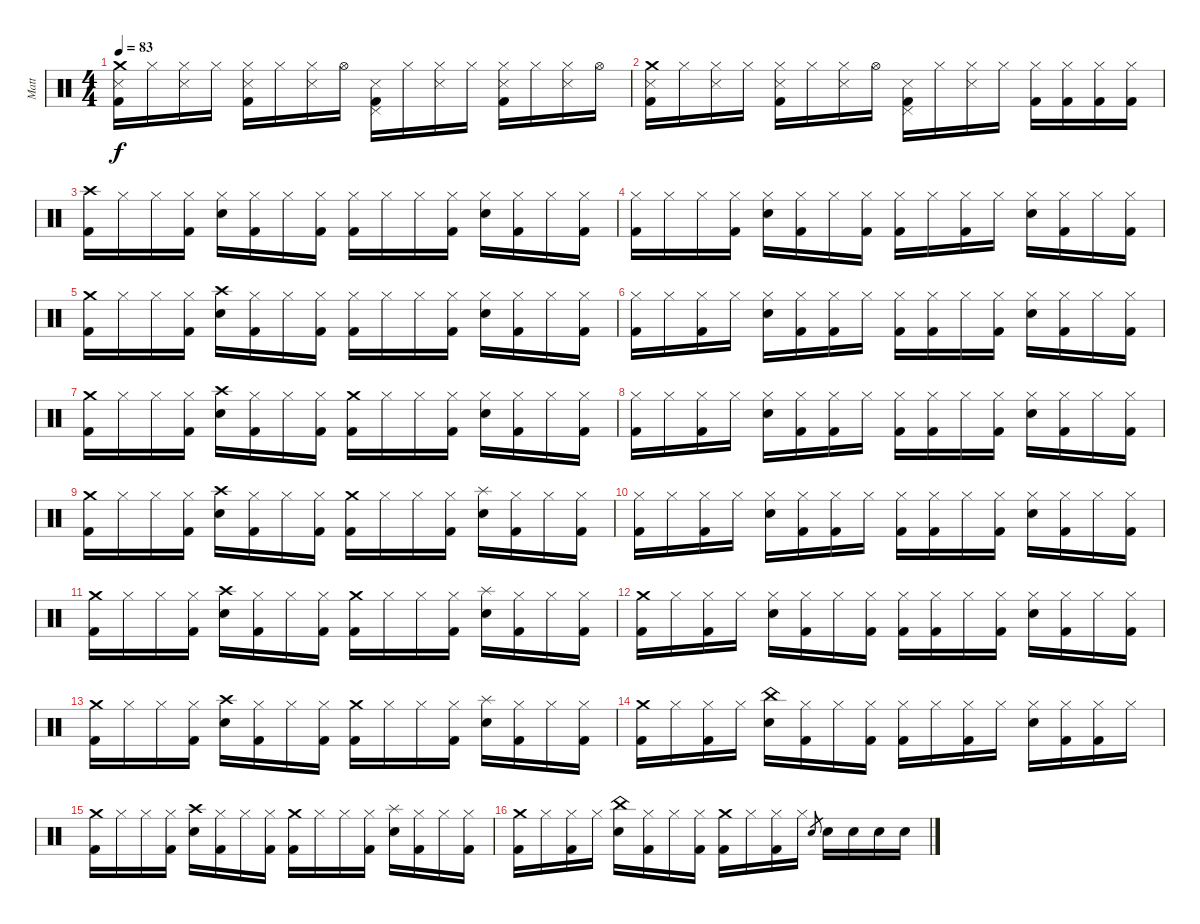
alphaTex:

\track ("Matt" "Matt") {instrument percussion}
\staff {score}
\articulation defaults
\ts (4 4)
\tempo 83
\clef neutral
\ks c
("Crash medium (hit)" "Snare (side stick) 3" "Kick (hit) 2").16{dy f} "Hi-Hat (closed)".16 ("Hi-Hat (closed)" "Snare (side stick) 3").16 "Hi-Hat (closed)".16 ("Hi-Hat (closed)" "Snare (side stick) 3" "Kick (hit) 2").16 "Hi-Hat (closed)".16 ("Hi-Hat (closed)" "Snare (side stick) 3").16 "Hi-Hat (open)".16 ("Pedal Hi-Hat (hit)" "Snare (side stick) 3" "Kick (hit) 2").16 "Hi-Hat (closed)".16 ("Hi-Hat (closed)" "Snare (side stick) 3").16 "Hi-Hat (closed)".16 ("Hi-Hat (closed)" "Snare (side stick) 3" "Kick (hit) 2").16 "Hi-Hat (closed)".16 ("Hi-Hat (closed)" "Snare (side stick) 3").16 "Hi-Hat (open)".16 |
("Crash medium (hit)" "Snare (side stick) 3" "Kick (hit) 2").16 "Hi-Hat (closed)".16 ("Hi-Hat (closed)" "Snare (side stick) 3").16 "Hi-Hat (closed)".16 ("Hi-Hat (closed)" "Snare (side stick) 3" "Kick (hit) 2").16 "Hi-Hat (closed)".16 ("Hi-Hat (closed)" "Snare (side stick) 3").16 "Hi-Hat (open)".16 ("Pedal Hi-Hat (hit)" "Snare (side stick) 3" "Kick (hit) 2").16 "Hi-Hat (closed)".16 ("Hi-Hat (closed)" "Snare (side stick) 3").16 "Hi-Hat (closed)".16 ("Hi-Hat (closed)" "Kick (hit) 2").16 ("Hi-Hat (closed)" "Kick (hit) 2").16 ("Hi-Hat (closed)" "Kick (hit) 2").16 ("Hi-Hat (closed)" "Kick (hit) 2").16 |
("Crash high (hit)" "Kick (hit) 2").16 "Hi-Hat (closed)".16 "Hi-Hat (closed)".16 ("Hi-Hat (closed)" "Kick (hit) 2").16 ("Hi-Hat (closed)" "Electric Snare (hit)").16 ("Hi-Hat (closed)" "Kick (hit) 2").16 "Hi-Hat (closed)".16 ("Hi-Hat (closed)" "Kick (hit) 2").16 ("Hi-Hat (closed)" "Kick (hit) 2").16 "Hi-Hat (closed)".16 "Hi-Hat (closed)".16 ("Hi-Hat (closed)" "Kick (hit) 2").16 ("Hi-Hat (closed)" "Electric Snare (hit)").16 ("Hi-Hat (closed)" "Kick (hit) 2").16 "Hi-Hat (closed)".16 ("Hi-Hat (closed)" "Kick (hit) 2").16 |
("Hi-Hat (closed)" "Kick (hit) 2").16 "Hi-Hat (closed)".16 "Hi-Hat (closed)".16 ("Hi-Hat (closed)" "Kick (hit) 2").16 ("Hi-Hat (closed)" "Electric Snare (hit)").16 ("Hi-Hat (closed)" "Kick (hit) 2").16 "Hi-Hat (closed)".16 ("Hi-Hat (closed)" "Kick (hit) 2").16 ("Hi-Hat (closed)" "Kick (hit) 2").16 "Hi-Hat (closed)".16 ("Hi-Hat (closed)" "Kick (hit) 2").16 "Hi-Hat (closed)".16 ("Hi-Hat (closed)" "Electric Snare (hit)").16 ("Hi-Hat (closed)" "Kick (hit) 2").16 "Hi-Hat (closed)".16 ("Hi-Hat (closed)" "Kick (hit) 2").16 |
("Crash medium (hit)" "Kick (hit) 2").16 "Hi-Hat (closed)".16 "Hi-Hat (closed)".16 ("Hi-Hat (closed)" "Kick (hit) 2").16 ("Crash high (hit)" "Electric Snare (hit)").16 ("Hi-Hat (closed)" "Kick (hit) 2").16 "Hi-Hat (closed)".16 ("Hi-Hat (closed)" "Kick (hit) 2").16 ("Hi-Hat (closed)" "Kick (hit) 2").16 "Hi-Hat (closed)".16 "Hi-Hat (closed)".16 ("Hi-Hat (closed)" "Kick (hit) 2").16 ("Hi-Hat (closed)" "Electric Snare (hit)").16 ("Hi-Hat (closed)" "Kick (hit) 2").16 "Hi-Hat (closed)".16 ("Hi-Hat (closed)" "Kick (hit) 2").16 |
("Hi-Hat (closed)" "Kick (hit) 2").16 "Hi-Hat (closed)".16 ("Hi-Hat (closed)" "Kick (hit) 2").16 "Hi-Hat (closed)".16 ("Hi-Hat (closed)" "Electric Snare (hit)").16 ("Hi-Hat (closed)" "Kick (hit) 2").16 ("Hi-Hat (closed)" "Kick (hit) 2").16 "Hi-Hat (closed)".16 ("Hi-Hat (closed)" "Kick (hit) 2").16 ("Hi-Hat (closed)" "Kick (hit) 2").16 "Hi-Hat (closed)".16 ("Hi-Hat (closed)" "Kick (hit) 2").16 ("Hi-Hat (closed)" "Electric Snare (hit)").16 ("Hi-Hat (closed)" "Kick (hit) 2").16 "Hi-Hat (closed)".16 ("Hi-Hat (closed)" "Kick (hit) 2").16 |
("Crash medium (hit)" "Kick (hit) 2").16 "Hi-Hat (closed)".16 "Hi-Hat (closed)".16 ("Hi-Hat (closed)" "Kick (hit) 2").16 ("Crash high (hit)" "Electric Snare (hit)").16 ("Hi-Hat (closed)" "Kick (hit) 2").16 "Hi-Hat (closed)".16 ("Hi-Hat (closed)" "Kick (hit) 2").16 ("Crash medium (hit)" "Kick (hit) 2").16 "Hi-Hat (closed)".16 "Hi-Hat (closed)".16 ("Hi-Hat (closed)" "Kick (hit) 2").16 ("Hi-Hat (closed)" "Electric Snare (hit)").16 ("Hi-Hat (closed)" "Kick (hit) 2").16 "Hi-Hat (closed)".16 ("Hi-Hat (closed)" "Kick (hit) 2").16 |
("Hi-Hat (closed)" "Kick (hit) 2").16 "Hi-Hat (closed)".16 ("Hi-Hat (closed)" "Kick (hit) 2").16 "Hi-Hat (closed)".16 ("Hi-Hat (closed)" "Electric Snare (hit)").16 ("Hi-Hat (closed)" "Kick (hit) 2").16 ("Hi-Hat (closed)" "Kick (hit) 2").16 "Hi-Hat (closed)".16 ("Hi-Hat (closed)" "Kick (hit) 2").16 ("Hi-Hat (closed)" "Kick (hit) 2").16 "Hi-Hat (closed)".16 ("Hi-Hat (closed)" "Kick (hit) 2").16 ("Hi-Hat (closed)" "Electric Snare (hit)").16 ("Hi-Hat (closed)" "Kick (hit) 2").16 "Hi-Hat (closed)".16 ("Hi-Hat (closed)" "Kick (hit) 2").16 |
("Crash medium (hit)" "Kick (hit) 2").16 "Hi-Hat (closed)".16 "Hi-Hat (closed)".16 ("Hi-Hat (closed)" "Kick (hit) 2").16 ("Crash high (hit)" "Electric Snare (hit)").16 ("Hi-Hat (closed)" "Kick (hit) 2").16 "Hi-Hat (closed)".16 ("Hi-Hat (closed)" "Kick (hit) 2").16 ("Crash medium (hit)" "Kick (hit) 2").16 "Hi-Hat (closed)".16 "Hi-Hat (closed)".16 ("Hi-Hat (closed)" "Kick (hit) 2").16 ("Splash (hit)" "Electric Snare (hit)").16 ("Hi-Hat (closed)" "Kick (hit) 2").16 "Hi-Hat (closed)".16 ("Hi-Hat (closed)" "Kick (hit) 2").16 |
("Hi-Hat (closed)" "Kick (hit) 2").16 "Hi-Hat (closed)".16 ("Hi-Hat (closed)" "Kick (hit) 2").16 "Hi-Hat (closed)".16 ("Hi-Hat (closed)" "Electric Snare (hit)").16 ("Hi-Hat (closed)" "Kick (hit) 2").16 ("Hi-Hat (closed)" "Kick (hit) 2").16 "Hi-Hat (closed)".16 ("Hi-Hat (closed)" "Kick (hit) 2").16 ("Hi-Hat (closed)" "Kick (hit) 2").16 "Hi-Hat (closed)".16 ("Hi-Hat (closed)" "Kick (hit) 2").16 ("Hi-Hat (closed)" "Electric Snare (hit)").16 ("Hi-Hat (closed)" "Kick (hit) 2").16 "Hi-Hat (closed)".16 ("Hi-Hat (closed)" "Kick (hit) 2").16 |
("Crash medium (hit)" "Kick (hit) 2").16 "Hi-Hat (closed)".16 "Hi-Hat (closed)".16 ("Hi-Hat (closed)" "Kick (hit) 2").16 ("Crash high (hit)" "Electric Snare (hit)").16 ("Hi-Hat (closed)" "Kick (hit) 2").16 "Hi-Hat (closed)".16 ("Hi-Hat (closed)" "Kick (hit) 2").16 ("Crash medium (hit)" "Kick (hit) 2").16 "Hi-Hat (closed)".16 "Hi-Hat (closed)".16 ("Hi-Hat (closed)" "Kick (hit) 2").16 ("Splash (hit)" "Electric Snare (hit)").16 ("Hi-Hat (closed)" "Kick (hit) 2").16 "Hi-Hat (closed)".16 ("Hi-Hat (closed)" "Kick (hit) 2").16 |
("Crash medium (hit)" "Kick (hit) 2").16 "Hi-Hat (closed)".16 ("Hi-Hat (closed)" "Kick (hit) 2").16 "Hi-Hat (closed)".16 ("Hi-Hat (closed)" "Electric Snare (hit)").16 ("Hi-Hat (closed)" "Kick (hit) 2").16 "Hi-Hat (closed)".16 ("Hi-Hat (closed)" "Kick (hit) 2").16 ("Hi-Hat (closed)" "Kick (hit) 2").16 ("Hi-Hat (closed)" "Kick (hit) 2").16 "Hi-Hat (closed)".16 ("Hi-Hat (closed)" "Kick (hit) 2").16 ("Hi-Hat (closed)" "Electric Snare (hit)").16 ("Hi-Hat (closed)" "Kick (hit) 2").16 "Hi-Hat (closed)".16 ("Hi-Hat (closed)" "Kick (hit) 2").16 |
("Crash medium (hit)" "Kick (hit) 2").16 "Hi-Hat (closed)".16 "Hi-Hat (closed)".16 ("Hi-Hat (closed)" "Kick (hit) 2").16 ("Crash high (hit)" "Electric Snare (hit)").16 ("Hi-Hat (closed)" "Kick (hit) 2").16 "Hi-Hat (closed)".16 ("Hi-Hat (closed)" "Kick (hit) 2").16 ("Crash medium (hit)" "Kick (hit) 2").16 "Hi-Hat (closed)".16 "Hi-Hat (closed)".16 ("Hi-Hat (closed)" "Kick (hit) 2").16 ("Splash (hit)" "Electric Snare (hit)").16 ("Hi-Hat (closed)" "Kick (hit) 2").16 "Hi-Hat (closed)".16 ("Hi-Hat (closed)" "Kick (hit) 2").16 |
("Crash medium (hit)" "Kick (hit) 2").16 "Hi-Hat (closed)".16 ("Hi-Hat (closed)" "Kick (hit) 2").16 "Hi-Hat (closed)".16 ("China (hit)" "Electric Snare (hit)").16 ("Hi-Hat (closed)" "Kick (hit) 2").16 "Hi-Hat (closed)".16 ("Hi-Hat (closed)" "Kick (hit) 2").16 ("Hi-Hat (closed)" "Kick (hit) 2").16 "Hi-Hat (closed)".16 ("Hi-Hat (closed)" "Kick (hit) 2").16 "Hi-Hat (closed)".16 ("Hi-Hat (closed)" "Electric Snare (hit)").16 ("Hi-Hat (closed)" "Kick (hit) 2").16 ("Hi-Hat (closed)" "Kick (hit) 2").16 "Hi-Hat (closed)".16 |
("Crash medium (hit)" "Kick (hit) 2").16 "Hi-Hat (closed)".16 "Hi-Hat (closed)".16 ("Hi-Hat (closed)" "Kick (hit) 2").16 ("Crash high (hit)" "Electric Snare (hit)").16 ("Hi-Hat (closed)" "Kick (hit) 2").16 "Hi-Hat (closed)".16 ("Hi-Hat (closed)" "Kick (hit) 2").16 ("Crash medium (hit)" "Kick (hit) 2").16 "Hi-Hat (closed)".16 "Hi-Hat (closed)".16 ("Hi-Hat (closed)" "Kick (hit) 2").16 ("Splash (hit)" "Electric Snare (hit)").16 ("Hi-Hat (closed)" "Kick (hit) 2").16 "Hi-Hat (closed)".16 ("Hi-Hat (closed)" "Kick (hit) 2").16 |
("Crash medium (hit)" "Kick (hit) 2").16 "Hi-Hat (closed)".16 ("Hi-Hat (closed)" "Kick (hit) 2").16 "Hi-Hat (closed)".16 ("China (hit)" "Electric Snare (hit)").16 ("Hi-Hat (closed)" "Kick (hit) 2").16 "Hi-Hat (closed)".16 ("Hi-Hat (closed)" "Kick (hit) 2").16 ("Crash medium (hit)" "Kick (hit) 2").16 "Hi-Hat (closed)".16 ("Hi-Hat (closed)" "Kick (hit) 2").16 "Hi-Hat (closed)".16 "Electric Snare (hit)".8{gr} "Electric Snare (hit)".16 "Electric Snare (hit)".16 "Electric Snare (hit)".16 "Electric Snare (hit)".16
